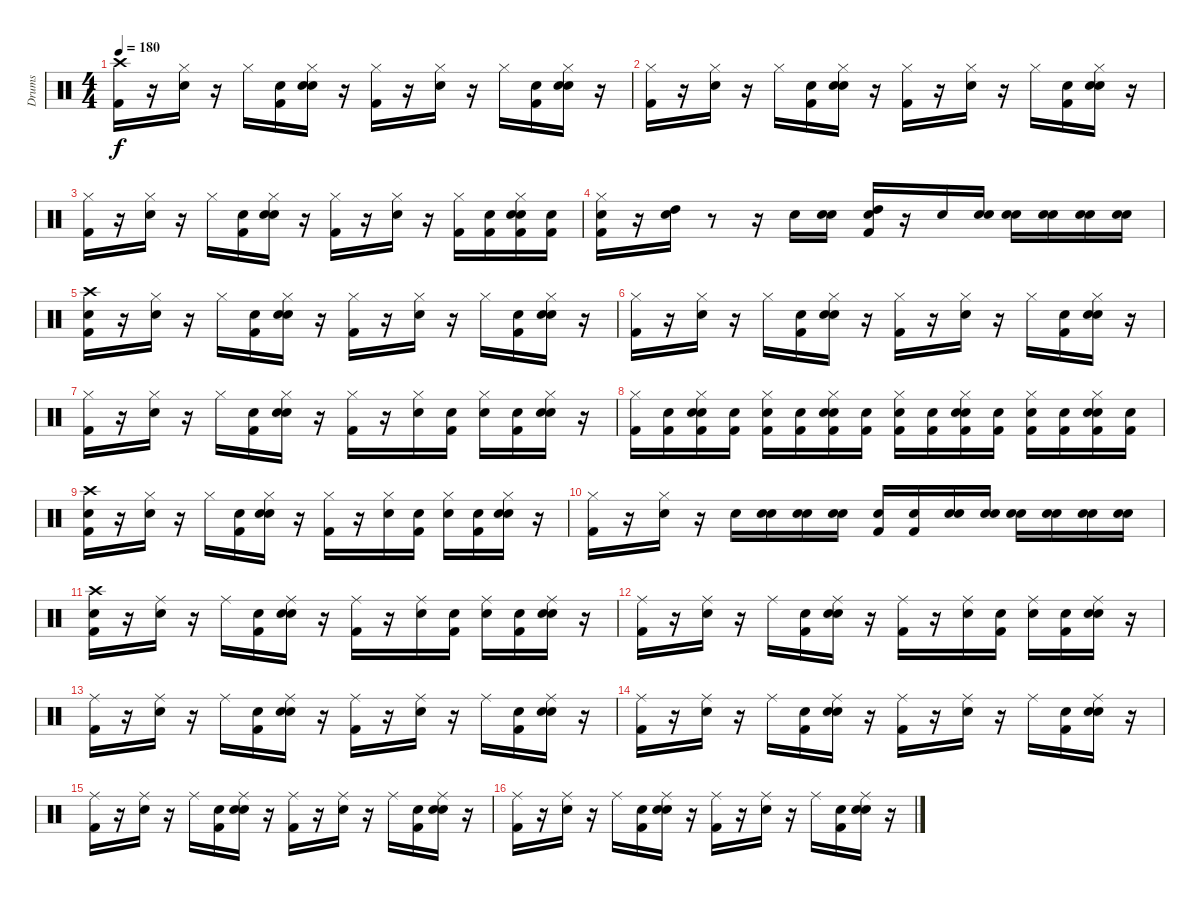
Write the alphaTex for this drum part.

\track ("Drums" "Drums") {instrument percussion}
\staff {score}
\articulation defaults
\ts (4 4)
\tempo 180
\clef neutral
\ks c
("Kick (hit) 2" "Crash high (hit)").16{dy f} r.16 ("Snare (hit) 2" "Hi-Hat (closed)").16 r.16 "Hi-Hat (closed)".16 ("Snare (hit)" "Kick (hit) 2").16 ("Snare (hit)" "Snare (hit) 2" "Hi-Hat (closed)").16 r.16 ("Kick (hit) 2" "Hi-Hat (closed)").16 r.16 ("Snare (hit) 2" "Hi-Hat (closed)").16 r.16 "Hi-Hat (closed)".16 ("Snare (hit)" "Kick (hit) 2").16 ("Snare (hit)" "Snare (hit) 2" "Hi-Hat (closed)").16 r.16 |
("Kick (hit) 2" "Hi-Hat (closed)").16 r.16 ("Snare (hit) 2" "Hi-Hat (closed)").16 r.16 "Hi-Hat (closed)".16 ("Snare (hit)" "Kick (hit) 2").16 ("Snare (hit)" "Snare (hit) 2" "Hi-Hat (closed)").16 r.16 ("Kick (hit) 2" "Hi-Hat (closed)").16 r.16 ("Snare (hit) 2" "Hi-Hat (closed)").16 r.16 "Hi-Hat (closed)".16 ("Snare (hit)" "Kick (hit) 2").16 ("Snare (hit)" "Snare (hit) 2" "Hi-Hat (closed)").16 r.16 |
("Kick (hit) 2" "Hi-Hat (closed)").16 r.16 ("Snare (hit) 2" "Hi-Hat (closed)").16 r.16 "Hi-Hat (closed)".16 ("Snare (hit)" "Kick (hit) 2").16 ("Snare (hit)" "Snare (hit) 2" "Hi-Hat (closed)").16 r.16 ("Kick (hit) 2" "Hi-Hat (closed)").16 r.16 ("Snare (hit) 2" "Hi-Hat (closed)").16 r.16 ("Kick (hit) 2" "Hi-Hat (closed)").16 ("Snare (hit)" "Kick (hit) 2").16 ("Snare (hit)" "Kick (hit) 2" "Snare (hit) 2" "Hi-Hat (closed)").16 ("Snare (hit)" "Kick (hit) 2").16 |
("Snare (hit)" "Kick (hit) 2" "Hi-Hat (closed)").16 r.16 ("Snare (hit) 2" "High Tom (hit)").16 r.8 r.16 "Snare (hit) 2".16 ("Snare (hit)" "Snare (hit) 2").16 ("Snare (hit)" "High Tom (hit)" "Kick (hit) 2").16 r.16 "Snare (hit) 2".16 ("Snare (hit)" "Snare (hit) 2").16 ("Snare (hit)" "Snare (hit) 2").16 ("Snare (hit)" "Snare (hit) 2").16 ("Snare (hit)" "Snare (hit) 2").16 ("Snare (hit)" "Snare (hit) 2").16 |
("Snare (hit)" "Kick (hit) 2" "Crash high (hit)").16 r.16 ("Snare (hit) 2" "Hi-Hat (closed)").16 r.16 "Hi-Hat (closed)".16 ("Snare (hit)" "Kick (hit) 2").16 ("Snare (hit)" "Snare (hit) 2" "Hi-Hat (closed)").16 r.16 ("Kick (hit) 2" "Hi-Hat (closed)").16 r.16 ("Snare (hit) 2" "Hi-Hat (closed)").16 r.16 "Hi-Hat (closed)".16 ("Snare (hit)" "Kick (hit) 2").16 ("Snare (hit)" "Snare (hit) 2" "Hi-Hat (closed)").16 r.16 |
("Kick (hit) 2" "Hi-Hat (closed)").16 r.16 ("Snare (hit) 2" "Hi-Hat (closed)").16 r.16 "Hi-Hat (closed)".16 ("Snare (hit)" "Kick (hit) 2").16 ("Snare (hit)" "Snare (hit) 2" "Hi-Hat (closed)").16 r.16 ("Kick (hit) 2" "Hi-Hat (closed)").16 r.16 ("Snare (hit) 2" "Hi-Hat (closed)").16 r.16 "Hi-Hat (closed)".16 ("Snare (hit)" "Kick (hit) 2").16 ("Snare (hit)" "Snare (hit) 2" "Hi-Hat (closed)").16 r.16 |
("Kick (hit) 2" "Hi-Hat (closed)").16 r.16 ("Snare (hit) 2" "Hi-Hat (closed)").16 r.16 "Hi-Hat (closed)".16 ("Snare (hit)" "Kick (hit) 2").16 ("Snare (hit)" "Snare (hit) 2" "Hi-Hat (closed)").16 r.16 ("Kick (hit) 2" "Hi-Hat (closed)").16 r.16 ("Snare (hit) 2" "Hi-Hat (closed)").16 ("Snare (hit)" "Kick (hit) 2").16 ("Snare (hit)" "Hi-Hat (closed)").16 ("Snare (hit)" "Kick (hit) 2").16 ("Snare (hit)" "Snare (hit) 2" "Hi-Hat (closed)").16 r.16 |
("Kick (hit) 2" "Hi-Hat (closed)").16 ("Snare (hit)" "Kick (hit) 2").16 ("Snare (hit)" "Snare (hit) 2" "Kick (hit) 2" "Hi-Hat (closed)").16 ("Snare (hit)" "Kick (hit) 2").16 ("Snare (hit)" "Kick (hit) 2" "Hi-Hat (closed)").16 ("Snare (hit)" "Kick (hit) 2").16 ("Snare (hit)" "Snare (hit) 2" "Kick (hit) 2" "Hi-Hat (closed)").16 ("Snare (hit)" "Kick (hit) 2").16 ("Snare (hit)" "Kick (hit) 2" "Hi-Hat (closed)").16 ("Snare (hit)" "Kick (hit) 2").16 ("Snare (hit)" "Snare (hit) 2" "Kick (hit) 2" "Hi-Hat (closed)").16 ("Snare (hit)" "Kick (hit) 2").16 ("Snare (hit)" "Kick (hit) 2" "Hi-Hat (closed)").16 ("Snare (hit)" "Kick (hit) 2").16 ("Snare (hit)" "Snare (hit) 2" "Kick (hit) 2" "Hi-Hat (closed)").16 ("Snare (hit)" "Kick (hit) 2").16 |
("Snare (hit)" "Crash high (hit)" "Kick (hit) 2").16 r.16 ("Snare (hit) 2" "Hi-Hat (closed)").16 r.16 "Hi-Hat (closed)".16 ("Snare (hit)" "Kick (hit) 2").16 ("Snare (hit)" "Snare (hit) 2" "Hi-Hat (closed)").16 r.16 ("Kick (hit) 2" "Hi-Hat (closed)").16 r.16 ("Snare (hit) 2" "Hi-Hat (closed)").16 ("Snare (hit)" "Kick (hit) 2").16 ("Snare (hit)" "Hi-Hat (closed)").16 ("Snare (hit)" "Kick (hit) 2").16 ("Snare (hit)" "Snare (hit) 2" "Hi-Hat (closed)").16 r.16 |
("Kick (hit) 2" "Hi-Hat (closed)").16 r.16 ("Snare (hit) 2" "Hi-Hat (closed)").16 r.16 "Snare (hit) 2".16 ("Snare (hit)" "Snare (hit) 2").16 ("Snare (hit)" "Snare (hit) 2").16 ("Snare (hit)" "Snare (hit) 2").16 ("Snare (hit)" "Kick (hit) 2").16 ("Snare (hit)" "Kick (hit) 2").16 ("Snare (hit)" "Snare (hit) 2").16 ("Snare (hit)" "Snare (hit) 2").16 ("Snare (hit)" "Snare (hit) 2").16 ("Snare (hit)" "Snare (hit) 2").16 ("Snare (hit)" "Snare (hit) 2").16 ("Snare (hit)" "Snare (hit) 2").16 |
("Snare (hit)" "Kick (hit) 2" "Crash high (hit)").16 r.16 ("Snare (hit) 2" "Ride (middle)").16 r.16 "Ride (middle)".16 ("Snare (hit)" "Kick (hit) 2").16 ("Snare (hit)" "Snare (hit) 2" "Ride (middle)").16 r.16 ("Kick (hit) 2" "Ride (middle)").16 r.16 ("Snare (hit) 2" "Ride (middle)").16 ("Snare (hit)" "Kick (hit) 2").16 ("Snare (hit)" "Ride (middle)").16 ("Snare (hit)" "Kick (hit) 2").16 ("Snare (hit)" "Snare (hit) 2" "Ride (middle)").16 r.16 |
("Kick (hit) 2" "Ride (middle)").16 r.16 ("Snare (hit) 2" "Ride (middle)").16 r.16 "Ride (middle)".16 ("Snare (hit)" "Kick (hit) 2").16 ("Snare (hit)" "Snare (hit) 2" "Ride (middle)").16 r.16 ("Kick (hit) 2" "Ride (middle)").16 r.16 ("Snare (hit) 2" "Ride (middle)").16 ("Snare (hit)" "Kick (hit) 2").16 ("Snare (hit)" "Ride (middle)").16 ("Snare (hit)" "Kick (hit) 2").16 ("Snare (hit)" "Snare (hit) 2" "Ride (middle)").16 r.16 |
("Kick (hit) 2" "Ride (middle)").16 r.16 ("Snare (hit) 2" "Ride (middle)").16 r.16 "Ride (middle)".16 ("Snare (hit)" "Kick (hit) 2").16 ("Snare (hit)" "Snare (hit) 2" "Ride (middle)").16 r.16 ("Kick (hit) 2" "Ride (middle)").16 r.16 ("Snare (hit) 2" "Ride (middle)").16 r.16 "Ride (middle)".16 ("Snare (hit)" "Kick (hit) 2").16 ("Snare (hit)" "Snare (hit) 2" "Ride (middle)").16 r.16 |
("Kick (hit) 2" "Ride (middle)").16 r.16 ("Snare (hit) 2" "Ride (middle)").16 r.16 "Ride (middle)".16 ("Snare (hit)" "Kick (hit) 2").16 ("Snare (hit)" "Snare (hit) 2" "Ride (middle)").16 r.16 ("Kick (hit) 2" "Ride (middle)").16 r.16 ("Snare (hit) 2" "Ride (middle)").16 r.16 "Ride (middle)".16 ("Snare (hit)" "Kick (hit) 2").16 ("Snare (hit)" "Snare (hit) 2" "Ride (middle)").16 r.16 |
("Kick (hit) 2" "Ride (middle)").16 r.16 ("Snare (hit) 2" "Ride (middle)").16 r.16 "Ride (middle)".16 ("Snare (hit)" "Kick (hit) 2").16 ("Snare (hit)" "Snare (hit) 2" "Ride (middle)").16 r.16 ("Kick (hit) 2" "Ride (middle)").16 r.16 ("Snare (hit) 2" "Ride (middle)").16 r.16 "Ride (middle)".16 ("Snare (hit)" "Kick (hit) 2").16 ("Snare (hit)" "Snare (hit) 2" "Ride (middle)").16 r.16 |
("Kick (hit) 2" "Ride (middle)").16 r.16 ("Snare (hit) 2" "Ride (middle)").16 r.16 "Ride (middle)".16 ("Snare (hit)" "Kick (hit) 2").16 ("Snare (hit)" "Snare (hit) 2" "Ride (middle)").16 r.16 ("Kick (hit) 2" "Ride (middle)").16 r.16 ("Snare (hit) 2" "Ride (middle)").16 r.16 "Ride (middle)".16 ("Snare (hit)" "Kick (hit) 2").16 ("Snare (hit)" "Snare (hit) 2" "Ride (middle)").16 r.16
